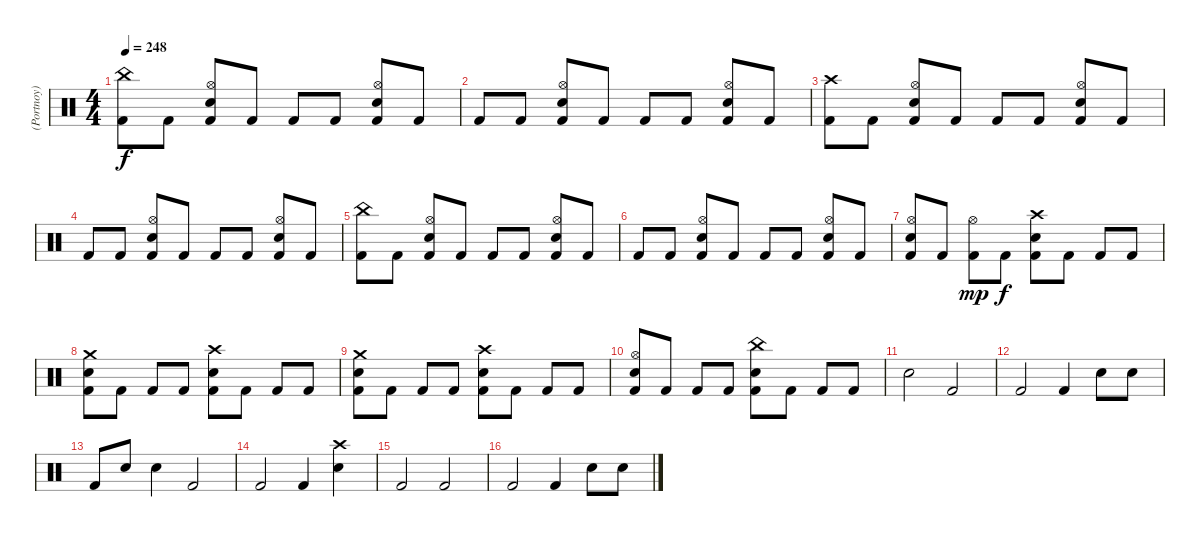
\track ("(Portnoy) Drums" "(Portnoy) ") {instrument percussion}
\staff {score}
\articulation defaults
\ts (4 4)
\tempo 248
\clef neutral
\ks aminor
("China (hit)" "Kick (hit) 2").8{dy f} "Kick (hit) 2".8 ("Hi-Hat (open)" "Snare (hit) 2" "Kick (hit) 2").8 "Kick (hit) 2".8 "Kick (hit) 2".8 "Kick (hit) 2".8 ("Hi-Hat (open)" "Snare (hit) 2" "Kick (hit) 2").8 "Kick (hit) 2".8 |
"Kick (hit) 2".8 "Kick (hit) 2".8 ("Hi-Hat (open)" "Snare (hit) 2" "Kick (hit) 2").8 "Kick (hit) 2".8 "Kick (hit) 2".8 "Kick (hit) 2".8 ("Hi-Hat (open)" "Snare (hit) 2" "Kick (hit) 2").8 "Kick (hit) 2".8 |
("Crash high (hit)" "Kick (hit) 2").8 "Kick (hit) 2".8 ("Hi-Hat (open)" "Snare (hit) 2" "Kick (hit) 2").8 "Kick (hit) 2".8 "Kick (hit) 2".8 "Kick (hit) 2".8 ("Hi-Hat (open)" "Snare (hit) 2" "Kick (hit) 2").8 "Kick (hit) 2".8 |
"Kick (hit) 2".8 "Kick (hit) 2".8 ("Hi-Hat (open)" "Snare (hit) 2" "Kick (hit) 2").8 "Kick (hit) 2".8 "Kick (hit) 2".8 "Kick (hit) 2".8 ("Hi-Hat (open)" "Snare (hit) 2" "Kick (hit) 2").8 "Kick (hit) 2".8 |
("China (hit)" "Kick (hit) 2").8 "Kick (hit) 2".8 ("Hi-Hat (open)" "Snare (hit) 2" "Kick (hit) 2").8 "Kick (hit) 2".8 "Kick (hit) 2".8 "Kick (hit) 2".8 ("Hi-Hat (open)" "Snare (hit) 2" "Kick (hit) 2").8 "Kick (hit) 2".8 |
"Kick (hit) 2".8 "Kick (hit) 2".8 ("Hi-Hat (open)" "Snare (hit) 2" "Kick (hit) 2").8 "Kick (hit) 2".8 "Kick (hit) 2".8 "Kick (hit) 2".8 ("Hi-Hat (open)" "Snare (hit) 2" "Kick (hit) 2").8 "Kick (hit) 2".8 |
("Hi-Hat (open)" "Snare (hit) 2" "Kick (hit) 2").8 "Kick (hit) 2".8 ("Hi-Hat (open)" "Kick (hit) 2").8{dy mp} "Kick (hit) 2".8{dy f} ("Crash high (hit)" "Snare (hit) 2" "Kick (hit) 2").8 "Kick (hit) 2".8 "Kick (hit) 2".8 "Kick (hit) 2".8 |
("Crash medium (hit)" "Snare (hit) 2" "Kick (hit) 2").8 "Kick (hit) 2".8 "Kick (hit) 2".8 "Kick (hit) 2".8 ("Crash high (hit)" "Snare (hit) 2" "Kick (hit) 2").8 "Kick (hit) 2".8 "Kick (hit) 2".8 "Kick (hit) 2".8 |
("Crash medium (hit)" "Snare (hit) 2" "Kick (hit) 2").8 "Kick (hit) 2".8 "Kick (hit) 2".8 "Kick (hit) 2".8 ("Crash high (hit)" "Snare (hit) 2" "Kick (hit) 2").8 "Kick (hit) 2".8 "Kick (hit) 2".8 "Kick (hit) 2".8 |
("Hi-Hat (open)" "Snare (hit) 2" "Kick (hit) 2").8 "Kick (hit) 2".8 "Kick (hit) 2".8 "Kick (hit) 2".8 ("China (hit)" "Snare (hit) 2" "Kick (hit) 2").8 "Kick (hit) 2".8 "Kick (hit) 2".8 "Kick (hit) 2".8 |
"Snare (hit) 2".2 "Kick (hit) 2".2 |
"Kick (hit) 2".2 "Kick (hit) 2".4 "Snare (hit) 2".8 "Snare (hit) 2".8 |
"Kick (hit) 2".8 "Snare (hit) 2".8 "Snare (hit) 2".4 "Kick (hit) 2".2 |
"Kick (hit) 2".2 "Kick (hit) 2".4 ("Crash high (hit)" "Snare (hit) 2").4 |
"Kick (hit) 2".2 "Kick (hit) 2".2 |
"Kick (hit) 2".2 "Kick (hit) 2".4 "Snare (hit) 2".8 "Snare (hit) 2".8
